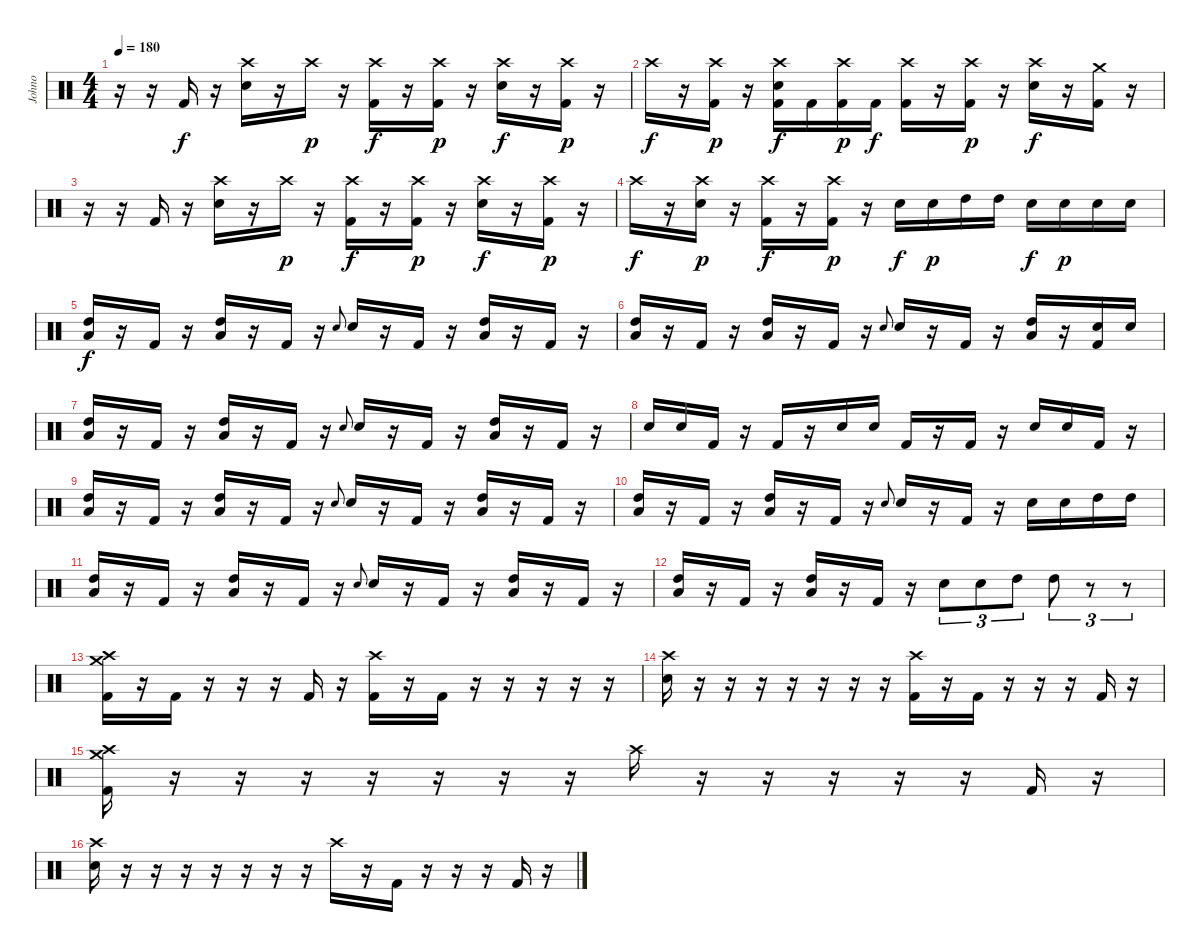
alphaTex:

\track (" Johno" " Johno") {instrument percussion}
\staff {score}
\articulation defaults
\ts (4 4)
\tempo 180
\clef neutral
\ks c
r.16{dy f} r.16 "Kick (hit) 2".16 r.16 ("Crash high (hit)" "Electric Snare (hit)").16 r.16 "Crash high (hit)".16{dy p} r.16 ("Crash high (hit)" "Kick (hit) 2").16{dy f} r.16 ("Crash high (hit)" "Kick (hit) 2").16{dy p} r.16 ("Crash high (hit)" "Electric Snare (hit)").16{dy f} r.16 ("Crash high (hit)" "Kick (hit) 2").16{dy p} r.16 |
"Crash high (hit)".16{dy f} r.16 ("Crash high (hit)" "Kick (hit) 2").16{dy p} r.16 ("Crash high (hit)" "Electric Snare (hit)" "Kick (hit) 2").16{dy f} "Kick (hit) 2".16 ("Crash high (hit)" "Kick (hit) 2").16{dy p} "Kick (hit) 2".16{dy f} ("Crash high (hit)" "Kick (hit) 2").16 r.16 ("Crash high (hit)" "Kick (hit) 2").16{dy p} r.16 ("Crash high (hit)" "Electric Snare (hit)").16{dy f} r.16 ("Crash medium (hit)" "Kick (hit) 2").16 r.16 |
r.16 r.16 "Kick (hit) 2".16 r.16 ("Crash high (hit)" "Electric Snare (hit)").16 r.16 "Crash high (hit)".16{dy p} r.16 ("Crash high (hit)" "Kick (hit) 2").16{dy f} r.16 ("Crash high (hit)" "Kick (hit) 2").16{dy p} r.16 ("Crash high (hit)" "Electric Snare (hit)").16{dy f} r.16 ("Crash high (hit)" "Kick (hit) 2").16{dy p} r.16 |
"Crash high (hit)".16{dy f} r.16 ("Crash high (hit)" "Electric Snare (hit)").16{dy p} r.16 ("Crash high (hit)" "Kick (hit) 2").16{dy f} r.16 ("Crash high (hit)" "Kick (hit) 2").16{dy p} r.16 "Electric Snare (hit)".16{dy f} "Electric Snare (hit)".16{dy p} "High Tom (hit)".16 "High Tom (hit)".16 "Electric Snare (hit)".16{dy f} "Electric Snare (hit)".16{dy p} "Electric Snare (hit)".16 "Electric Snare (hit)".16 |
("Low Floor Tom (hit)" "High Tom (hit)").16{dy f} r.16 "Kick (hit) 2".16 r.16 ("Low Floor Tom (hit)" "High Tom (hit)").16 r.16 "Kick (hit) 2".16 r.16 "Electric Snare (hit)".8{gr onbeat} "Electric Snare (hit)".16 r.16 "Kick (hit) 2".16 r.16 ("Low Floor Tom (hit)" "High Tom (hit)").16 r.16 "Kick (hit) 2".16 r.16 |
("Low Floor Tom (hit)" "High Tom (hit)").16 r.16 "Kick (hit) 2".16 r.16 ("Low Floor Tom (hit)" "High Tom (hit)").16 r.16 "Kick (hit) 2".16 r.16 "Electric Snare (hit)".8{gr onbeat} "Electric Snare (hit)".16 r.16 "Kick (hit) 2".16 r.16 ("Low Floor Tom (hit)" "High Tom (hit)").16 r.16 ("Electric Snare (hit)" "Kick (hit) 2").16 "Electric Snare (hit)".16 |
("Low Floor Tom (hit)" "High Tom (hit)").16 r.16 "Kick (hit) 2".16 r.16 ("Low Floor Tom (hit)" "High Tom (hit)").16 r.16 "Kick (hit) 2".16 r.16 "Electric Snare (hit)".8{gr onbeat} "Electric Snare (hit)".16 r.16 "Kick (hit) 2".16 r.16 ("Low Floor Tom (hit)" "High Tom (hit)").16 r.16 "Kick (hit) 2".16 r.16 |
"Electric Snare (hit)".16 "Electric Snare (hit)".16 "Kick (hit) 2".16 r.16 "Kick (hit) 2".16 r.16 "Electric Snare (hit)".16 "Electric Snare (hit)".16 "Kick (hit) 2".16 r.16 "Kick (hit) 2".16 r.16 "Electric Snare (hit)".16 "Electric Snare (hit)".16 "Kick (hit) 2".16 r.16 |
("Low Floor Tom (hit)" "High Tom (hit)").16 r.16 "Kick (hit) 2".16 r.16 ("Low Floor Tom (hit)" "High Tom (hit)").16 r.16 "Kick (hit) 2".16 r.16 "Electric Snare (hit)".8{gr onbeat} "Electric Snare (hit)".16 r.16 "Kick (hit) 2".16 r.16 ("Low Floor Tom (hit)" "High Tom (hit)").16 r.16 "Kick (hit) 2".16 r.16 |
("Low Floor Tom (hit)" "High Tom (hit)").16 r.16 "Kick (hit) 2".16 r.16 ("Low Floor Tom (hit)" "High Tom (hit)").16 r.16 "Kick (hit) 2".16 r.16 "Electric Snare (hit)".8{gr onbeat} "Electric Snare (hit)".16 r.16 "Kick (hit) 2".16 r.16 "Electric Snare (hit)".16 "Electric Snare (hit)".16 "High Tom (hit)".16 "High Tom (hit)".16 |
("Low Floor Tom (hit)" "High Tom (hit)").16 r.16 "Kick (hit) 2".16 r.16 ("Low Floor Tom (hit)" "High Tom (hit)").16 r.16 "Kick (hit) 2".16 r.16 "Electric Snare (hit)".8{gr onbeat} "Electric Snare (hit)".16 r.16 "Kick (hit) 2".16 r.16 ("Low Floor Tom (hit)" "High Tom (hit)").16 r.16 "Kick (hit) 2".16 r.16 |
("Low Floor Tom (hit)" "High Tom (hit)").16 r.16 "Kick (hit) 2".16 r.16 ("Low Floor Tom (hit)" "High Tom (hit)").16 r.16 "Kick (hit) 2".16 r.16 "Electric Snare (hit)".8{tu (3 2)} "Electric Snare (hit)".8{tu (3 2)} "High Tom (hit)".8{tu (3 2)} "High Tom (hit)".8{tu (3 2)} r.8{tu (3 2)} r.8{tu (3 2)} |
("Crash medium (hit)" "Crash high (hit)" "Kick (hit) 2").16 r.16 "Kick (hit) 2".16 r.16 r.16 r.16 "Kick (hit) 2".16 r.16 ("Crash high (hit)" "Kick (hit) 2").16 r.16 "Kick (hit) 2".16 r.16 r.16 r.16 r.16 r.16 |
("Crash high (hit)" "Electric Snare (hit)").16 r.16 r.16 r.16 r.16 r.16 r.16 r.16 ("Crash high (hit)" "Kick (hit) 2").16 r.16 "Kick (hit) 2".16 r.16 r.16 r.16 "Kick (hit) 2".16 r.16 |
("Crash medium (hit)" "Crash high (hit)" "Kick (hit) 2").16 r.16 r.16 r.16 r.16 r.16 r.16 r.16 "Crash high (hit)".16 r.16 r.16 r.16 r.16 r.16 "Kick (hit) 2".16 r.16 |
("Crash high (hit)" "Electric Snare (hit)").16 r.16 r.16 r.16 r.16 r.16 r.16 r.16 "Crash high (hit)".16 r.16 "Kick (hit) 2".16 r.16 r.16 r.16 "Kick (hit) 2".16 r.16
